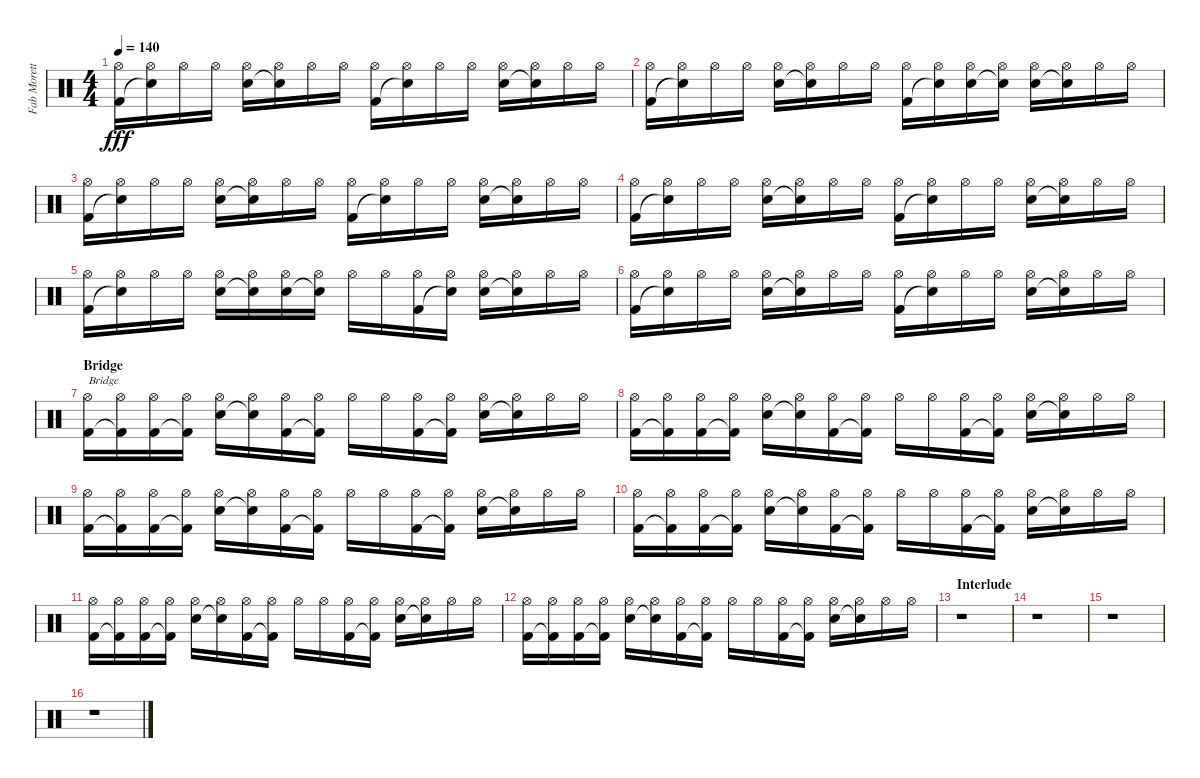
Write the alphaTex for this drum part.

\track ("Fab Moretti" "Fab Morett") {instrument percussion}
\staff {score}
\articulation defaults
\ts (4 4)
\tempo 140
\clef neutral
\ks c
("Hi-Hat (open)" "Kick (hit) 2").16{dy fff} ("Hi-Hat (open)" "Snare (hit) 2"{t}).16 "Hi-Hat (open)".16 "Hi-Hat (open)".16 ("Hi-Hat (open)" "Snare (hit) 2").16 ("Hi-Hat (open)" "Snare (hit)"{t}).16 "Hi-Hat (open)".16 "Hi-Hat (open)".16 ("Hi-Hat (open)" "Kick (hit) 2").16 ("Hi-Hat (open)" "Snare (hit)"{t}).16 "Hi-Hat (open)".16 "Hi-Hat (open)".16 ("Hi-Hat (open)" "Snare (hit) 2").16 ("Hi-Hat (open)" "Snare (hit)"{t}).16 "Hi-Hat (open)".16 "Hi-Hat (open)".16 |
("Hi-Hat (open)" "Kick (hit) 2").16 ("Hi-Hat (open)" "Snare (hit) 2"{t}).16 "Hi-Hat (open)".16 "Hi-Hat (open)".16 ("Hi-Hat (open)" "Snare (hit) 2").16 ("Hi-Hat (open)" "Snare (hit)"{t}).16 "Hi-Hat (open)".16 "Hi-Hat (open)".16 ("Hi-Hat (open)" "Kick (hit) 2").16 ("Hi-Hat (open)" "Snare (hit)"{t}).16 ("Hi-Hat (open)" "Snare (hit) 2").16 ("Hi-Hat (open)" "Snare (hit)"{t}).16 ("Hi-Hat (open)" "Snare (hit) 2").16 ("Hi-Hat (open)" "Snare (hit)"{t}).16 "Hi-Hat (open)".16 "Hi-Hat (open)".16 |
("Hi-Hat (open)" "Kick (hit) 2").16 ("Hi-Hat (open)" "Snare (hit) 2"{t}).16 "Hi-Hat (open)".16 "Hi-Hat (open)".16 ("Hi-Hat (open)" "Snare (hit) 2").16 ("Hi-Hat (open)" "Snare (hit)"{t}).16 "Hi-Hat (open)".16 "Hi-Hat (open)".16 ("Hi-Hat (open)" "Kick (hit) 2").16 ("Hi-Hat (open)" "Snare (hit)"{t}).16 "Hi-Hat (open)".16 "Hi-Hat (open)".16 ("Hi-Hat (open)" "Snare (hit) 2").16 ("Hi-Hat (open)" "Snare (hit)"{t}).16 "Hi-Hat (open)".16 "Hi-Hat (open)".16 |
("Hi-Hat (open)" "Kick (hit) 2").16 ("Hi-Hat (open)" "Snare (hit) 2"{t}).16 "Hi-Hat (open)".16 "Hi-Hat (open)".16 ("Hi-Hat (open)" "Snare (hit) 2").16 ("Hi-Hat (open)" "Snare (hit)"{t}).16 "Hi-Hat (open)".16 "Hi-Hat (open)".16 ("Hi-Hat (open)" "Kick (hit) 2").16 ("Hi-Hat (open)" "Snare (hit)"{t}).16 "Hi-Hat (open)".16 "Hi-Hat (open)".16 ("Hi-Hat (open)" "Snare (hit) 2").16 ("Hi-Hat (open)" "Snare (hit)"{t}).16 "Hi-Hat (open)".16 "Hi-Hat (open)".16 |
("Hi-Hat (open)" "Kick (hit) 2").16 ("Hi-Hat (open)" "Snare (hit) 2"{t}).16 "Hi-Hat (open)".16 "Hi-Hat (open)".16 ("Hi-Hat (open)" "Snare (hit) 2").16 ("Hi-Hat (open)" "Snare (hit)"{t}).16 ("Hi-Hat (open)" "Snare (hit) 2").16 ("Hi-Hat (open)" "Snare (hit)"{t}).16 "Hi-Hat (open)".16 "Hi-Hat (open)".16 ("Hi-Hat (open)" "Kick (hit) 2").16 ("Hi-Hat (open)" "Snare (hit)"{t}).16 ("Hi-Hat (open)" "Snare (hit) 2").16 ("Hi-Hat (open)" "Snare (hit)"{t}).16 "Hi-Hat (open)".16 "Hi-Hat (open)".16 |
("Hi-Hat (open)" "Kick (hit) 2").16 ("Hi-Hat (open)" "Snare (hit) 2"{t}).16 "Hi-Hat (open)".16 "Hi-Hat (open)".16 ("Hi-Hat (open)" "Snare (hit) 2").16 ("Hi-Hat (open)" "Snare (hit)"{t}).16 "Hi-Hat (open)".16 "Hi-Hat (open)".16 ("Hi-Hat (open)" "Kick (hit) 2").16 ("Hi-Hat (open)" "Snare (hit)"{t}).16 "Hi-Hat (open)".16 "Hi-Hat (open)".16 ("Hi-Hat (open)" "Snare (hit) 2").16 ("Hi-Hat (open)" "Snare (hit)"{t}).16 "Hi-Hat (open)".16 "Hi-Hat (open)".16 |
\section ("" "Bridge")
("Hi-Hat (open)" "Kick (hit) 2").16{txt "Bridge"} ("Hi-Hat (open)" "Kick (hit) 2"{t}).16 ("Hi-Hat (open)" "Kick (hit) 2").16 ("Hi-Hat (open)" "Kick (hit) 2"{t}).16 ("Hi-Hat (open)" "Snare (hit) 2").16 ("Hi-Hat (open)" "Snare (hit) 2"{t}).16 ("Hi-Hat (open)" "Kick (hit) 2").16 ("Hi-Hat (open)" "Kick (hit) 2"{t}).16 "Hi-Hat (open)".16 "Hi-Hat (open)".16 ("Hi-Hat (open)" "Kick (hit) 2").16 ("Hi-Hat (open)" "Kick (hit) 2"{t}).16 ("Hi-Hat (open)" "Snare (hit) 2").16 ("Hi-Hat (open)" "Snare (hit) 2"{t}).16 "Hi-Hat (open)".16 "Hi-Hat (open)".16 |
("Hi-Hat (open)" "Kick (hit) 2").16 ("Hi-Hat (open)" "Kick (hit) 2"{t}).16 ("Hi-Hat (open)" "Kick (hit) 2").16 ("Hi-Hat (open)" "Kick (hit) 2"{t}).16 ("Hi-Hat (open)" "Snare (hit) 2").16 ("Hi-Hat (open)" "Snare (hit) 2"{t}).16 ("Hi-Hat (open)" "Kick (hit) 2").16 ("Hi-Hat (open)" "Kick (hit) 2"{t}).16 "Hi-Hat (open)".16 "Hi-Hat (open)".16 ("Hi-Hat (open)" "Kick (hit) 2").16 ("Hi-Hat (open)" "Kick (hit) 2"{t}).16 ("Hi-Hat (open)" "Snare (hit) 2").16 ("Hi-Hat (open)" "Snare (hit) 2"{t}).16 "Hi-Hat (open)".16 "Hi-Hat (open)".16 |
("Hi-Hat (open)" "Kick (hit) 2").16 ("Hi-Hat (open)" "Kick (hit) 2"{t}).16 ("Hi-Hat (open)" "Kick (hit) 2").16 ("Hi-Hat (open)" "Kick (hit) 2"{t}).16 ("Hi-Hat (open)" "Snare (hit) 2").16 ("Hi-Hat (open)" "Snare (hit) 2"{t}).16 ("Hi-Hat (open)" "Kick (hit) 2").16 ("Hi-Hat (open)" "Kick (hit) 2"{t}).16 "Hi-Hat (open)".16 "Hi-Hat (open)".16 ("Hi-Hat (open)" "Kick (hit) 2").16 ("Hi-Hat (open)" "Kick (hit) 2"{t}).16 ("Hi-Hat (open)" "Snare (hit) 2").16 ("Hi-Hat (open)" "Snare (hit) 2"{t}).16 "Hi-Hat (open)".16 "Hi-Hat (open)".16 |
("Hi-Hat (open)" "Kick (hit) 2").16 ("Hi-Hat (open)" "Kick (hit) 2"{t}).16 ("Hi-Hat (open)" "Kick (hit) 2").16 ("Hi-Hat (open)" "Kick (hit) 2"{t}).16 ("Hi-Hat (open)" "Snare (hit) 2").16 ("Hi-Hat (open)" "Snare (hit) 2"{t}).16 ("Hi-Hat (open)" "Kick (hit) 2").16 ("Hi-Hat (open)" "Kick (hit) 2"{t}).16 "Hi-Hat (open)".16 "Hi-Hat (open)".16 ("Hi-Hat (open)" "Kick (hit) 2").16 ("Hi-Hat (open)" "Kick (hit) 2"{t}).16 ("Hi-Hat (open)" "Snare (hit) 2").16 ("Hi-Hat (open)" "Snare (hit) 2"{t}).16 "Hi-Hat (open)".16 "Hi-Hat (open)".16 |
("Hi-Hat (open)" "Kick (hit) 2").16 ("Hi-Hat (open)" "Kick (hit) 2"{t}).16 ("Hi-Hat (open)" "Kick (hit) 2").16 ("Hi-Hat (open)" "Kick (hit) 2"{t}).16 ("Hi-Hat (open)" "Snare (hit) 2").16 ("Hi-Hat (open)" "Snare (hit) 2"{t}).16 ("Hi-Hat (open)" "Kick (hit) 2").16 ("Hi-Hat (open)" "Kick (hit) 2"{t}).16 "Hi-Hat (open)".16 "Hi-Hat (open)".16 ("Hi-Hat (open)" "Kick (hit) 2").16 ("Hi-Hat (open)" "Kick (hit) 2"{t}).16 ("Hi-Hat (open)" "Snare (hit) 2").16 ("Hi-Hat (open)" "Snare (hit) 2"{t}).16 "Hi-Hat (open)".16 "Hi-Hat (open)".16 |
("Hi-Hat (open)" "Kick (hit) 2").16 ("Hi-Hat (open)" "Kick (hit) 2"{t}).16 ("Hi-Hat (open)" "Kick (hit) 2").16 ("Hi-Hat (open)" "Kick (hit) 2"{t}).16 ("Hi-Hat (open)" "Snare (hit) 2").16 ("Hi-Hat (open)" "Snare (hit) 2"{t}).16 ("Hi-Hat (open)" "Kick (hit) 2").16 ("Hi-Hat (open)" "Kick (hit) 2"{t}).16 "Hi-Hat (open)".16 "Hi-Hat (open)".16 ("Hi-Hat (open)" "Kick (hit) 2").16 ("Hi-Hat (open)" "Kick (hit) 2"{t}).16 ("Hi-Hat (open)" "Snare (hit) 2").16 ("Hi-Hat (open)" "Snare (hit) 2"{t}).16 "Hi-Hat (open)".16 "Hi-Hat (open)".16 |
\section ("" "Interlude")
r.1 |
r.1 |
r.1 |
r.1
